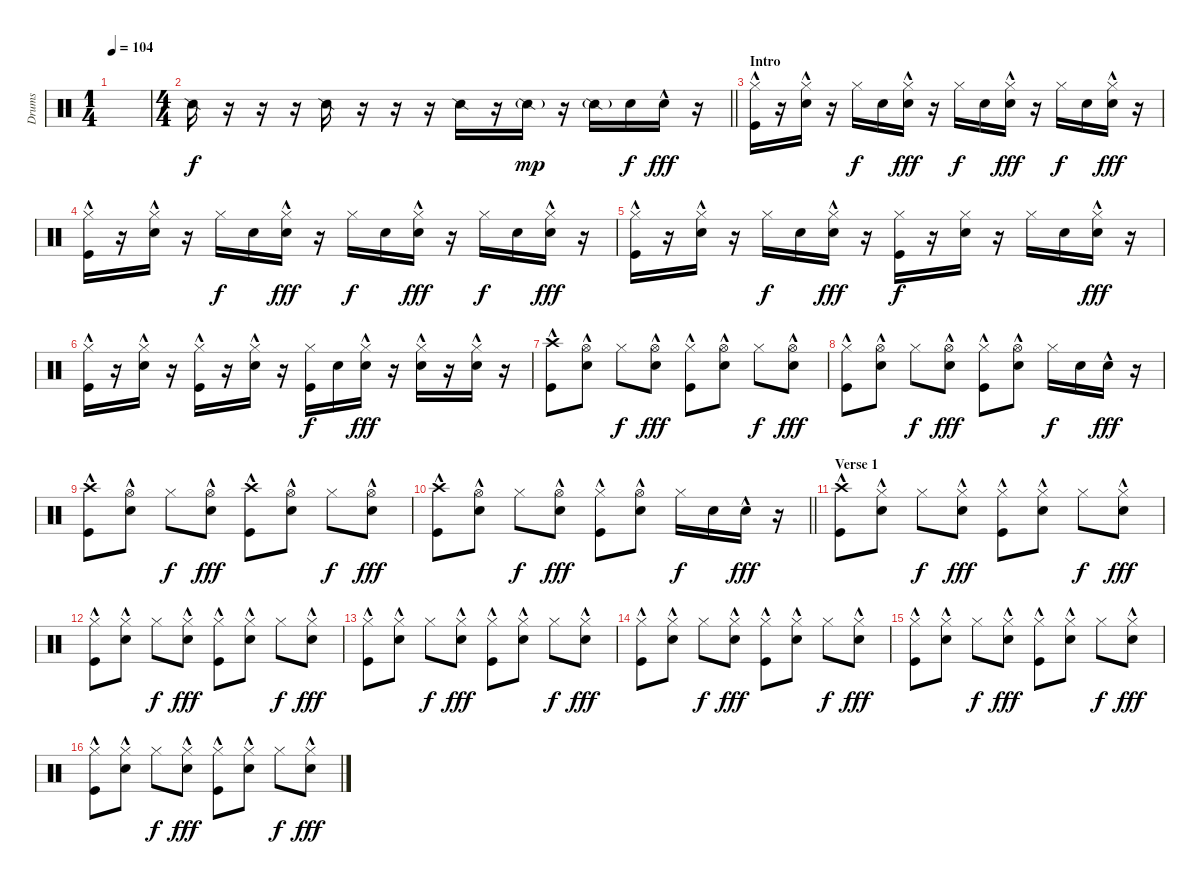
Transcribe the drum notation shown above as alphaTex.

\track ("Drums" "Drums") {instrument percussion}
\staff {score}
\articulation defaults
\ts (1 4)
\tempo 104
\clef neutral
\ks c
|
\ts (4 4)
\barLineRight lightlight "Snare (side stick) 2".16
r.16 r.16 r.16 "Snare (side stick) 2".16 r.16 r.16 r.16 "Snare (side stick) 2".16 r.16 "Snare (side stick) 2"{g}.16{dy mp} r.16 "Snare (side stick) 2"{g}.16 "Snare (hit) 2".16{dy f} "Snare (hit) 2"{hac}.16{dy fff} r.16 |
\section ("" "Intro")
("Hi-Hat (closed)" "Kick (hit)"{hac}).16 r.16 ("Hi-Hat (closed)" "Snare (hit) 2"{hac}).16 r.16 "Hi-Hat (closed)".16{dy f} "Snare (hit) 2".16 ("Hi-Hat (closed)" "Snare (hit) 2"{hac}).16{dy fff} r.16 "Hi-Hat (closed)".16{dy f} "Snare (hit) 2".16 ("Hi-Hat (closed)" "Snare (hit) 2"{hac}).16{dy fff} r.16 "Hi-Hat (closed)".16{dy f} "Snare (hit) 2".16 ("Hi-Hat (closed)" "Snare (hit) 2"{hac}).16{dy fff} r.16 |
("Hi-Hat (closed)" "Kick (hit)"{hac}).16 r.16 ("Hi-Hat (closed)" "Snare (hit) 2"{hac}).16 r.16 "Hi-Hat (closed)".16{dy f} "Snare (hit) 2".16 ("Hi-Hat (closed)" "Snare (hit) 2"{hac}).16{dy fff} r.16 "Hi-Hat (closed)".16{dy f} "Snare (hit) 2".16 ("Hi-Hat (closed)" "Snare (hit) 2"{hac}).16{dy fff} r.16 "Hi-Hat (closed)".16{dy f} "Snare (hit) 2".16 ("Hi-Hat (closed)" "Snare (hit) 2"{hac}).16{dy fff} r.16 |
("Hi-Hat (closed)" "Kick (hit)"{hac}).16 r.16 ("Hi-Hat (closed)" "Snare (hit) 2"{hac}).16 r.16 "Hi-Hat (closed)".16{dy f} "Snare (hit) 2".16 ("Hi-Hat (closed)" "Snare (hit) 2"{hac}).16{dy fff} r.16 ("Hi-Hat (closed)" "Kick (hit)").16{dy f} r.16 ("Hi-Hat (closed)" "Snare (hit) 2").16 r.16 "Hi-Hat (closed)".16 "Snare (hit) 2".16 ("Hi-Hat (closed)" "Snare (hit) 2"{hac}).16{dy fff} r.16 |
("Hi-Hat (closed)" "Kick (hit)"{hac}).16 r.16 ("Hi-Hat (closed)" "Snare (hit) 2"{hac}).16 r.16 ("Hi-Hat (closed)" "Kick (hit)"{hac}).16 r.16 ("Hi-Hat (closed)" "Snare (hit) 2"{hac}).16 r.16 ("Hi-Hat (closed)" "Kick (hit)").16{dy f} "Snare (hit) 2".16 ("Hi-Hat (closed)" "Snare (hit) 2"{hac}).16{dy fff} r.16 ("Hi-Hat (closed)" "Snare (hit) 2"{hac}).16 r.16 ("Hi-Hat (closed)" "Snare (hit) 2"{hac}).16 r.16 |
("Crash high (hit)" "Kick (hit)"{hac}).8 ("Hi-Hat (open)" "Snare (hit) 2"{hac}).8 "Hi-Hat (closed)".8{dy f} ("Hi-Hat (open)" "Snare (hit) 2"{hac}).8{dy fff} ("Hi-Hat (closed)" "Kick (hit)"{hac}).8 ("Hi-Hat (open)" "Snare (hit) 2"{hac}).8 "Hi-Hat (closed)".8{dy f} ("Hi-Hat (open)" "Snare (hit) 2"{hac}).8{dy fff} |
("Hi-Hat (closed)" "Kick (hit)"{hac}).8 ("Hi-Hat (open)" "Snare (hit) 2"{hac}).8 "Hi-Hat (closed)".8{dy f} ("Hi-Hat (open)" "Snare (hit) 2"{hac}).8{dy fff} ("Hi-Hat (closed)" "Kick (hit)"{hac}).8 ("Hi-Hat (open)" "Snare (hit) 2"{hac}).8 "Hi-Hat (closed)".16{dy f} "Snare (hit) 2".16 "Snare (hit) 2"{hac}.16{dy fff} r.16 |
("Crash high (hit)" "Kick (hit)"{hac}).8 ("Hi-Hat (open)" "Snare (hit) 2"{hac}).8 "Hi-Hat (closed)".8{dy f} ("Hi-Hat (open)" "Snare (hit) 2"{hac}).8{dy fff} ("Crash high (hit)" "Kick (hit)"{hac}).8 ("Hi-Hat (open)" "Snare (hit) 2"{hac}).8 "Hi-Hat (closed)".8{dy f} ("Hi-Hat (open)" "Snare (hit) 2"{hac}).8{dy fff} |
\barLineRight lightlight
("Crash high (hit)" "Kick (hit)"{hac}).8 ("Hi-Hat (open)" "Snare (hit) 2"{hac}).8 "Hi-Hat (closed)".8{dy f} ("Hi-Hat (open)" "Snare (hit) 2"{hac}).8{dy fff} ("Hi-Hat (closed)" "Kick (hit)"{hac}).8 ("Hi-Hat (open)" "Snare (hit) 2"{hac}).8 "Hi-Hat (closed)".16{dy f} "Snare (hit) 2".16 "Snare (hit) 2"{hac}.16{dy fff} r.16 |
\section ("" "Verse 1")
("Crash high (hit)" "Kick (hit)"{hac}).8 ("Hi-Hat (closed)" "Snare (hit) 2"{hac}).8 "Hi-Hat (closed)".8{dy f} ("Hi-Hat (closed)" "Snare (hit) 2"{hac}).8{dy fff} ("Hi-Hat (closed)" "Kick (hit)"{hac}).8 ("Hi-Hat (closed)" "Snare (hit) 2"{hac}).8 "Hi-Hat (closed)".8{dy f} ("Hi-Hat (closed)" "Snare (hit) 2"{hac}).8{dy fff} |
("Hi-Hat (closed)" "Kick (hit)"{hac}).8 ("Hi-Hat (closed)" "Snare (hit) 2"{hac}).8 "Hi-Hat (closed)".8{dy f} ("Hi-Hat (closed)" "Snare (hit) 2"{hac}).8{dy fff} ("Hi-Hat (closed)" "Kick (hit)"{hac}).8 ("Hi-Hat (closed)" "Snare (hit) 2"{hac}).8 "Hi-Hat (closed)".8{dy f} ("Hi-Hat (closed)" "Snare (hit) 2"{hac}).8{dy fff} |
("Hi-Hat (closed)" "Kick (hit)"{hac}).8 ("Hi-Hat (closed)" "Snare (hit) 2"{hac}).8 "Hi-Hat (closed)".8{dy f} ("Hi-Hat (closed)" "Snare (hit) 2"{hac}).8{dy fff} ("Hi-Hat (closed)" "Kick (hit)"{hac}).8 ("Hi-Hat (closed)" "Snare (hit) 2"{hac}).8 "Hi-Hat (closed)".8{dy f} ("Hi-Hat (closed)" "Snare (hit) 2"{hac}).8{dy fff} |
("Hi-Hat (closed)" "Kick (hit)"{hac}).8 ("Hi-Hat (closed)" "Snare (hit) 2"{hac}).8 "Hi-Hat (closed)".8{dy f} ("Hi-Hat (closed)" "Snare (hit) 2"{hac}).8{dy fff} ("Hi-Hat (closed)" "Kick (hit)"{hac}).8 ("Hi-Hat (closed)" "Snare (hit) 2"{hac}).8 "Hi-Hat (closed)".8{dy f} ("Hi-Hat (closed)" "Snare (hit) 2"{hac}).8{dy fff} |
("Hi-Hat (closed)" "Kick (hit)"{hac}).8 ("Hi-Hat (closed)" "Snare (hit) 2"{hac}).8 "Hi-Hat (closed)".8{dy f} ("Hi-Hat (closed)" "Snare (hit) 2"{hac}).8{dy fff} ("Hi-Hat (closed)" "Kick (hit)"{hac}).8 ("Hi-Hat (closed)" "Snare (hit) 2"{hac}).8 "Hi-Hat (closed)".8{dy f} ("Hi-Hat (closed)" "Snare (hit) 2"{hac}).8{dy fff} |
("Hi-Hat (closed)" "Kick (hit)"{hac}).8 ("Hi-Hat (closed)" "Snare (hit) 2"{hac}).8 "Hi-Hat (closed)".8{dy f} ("Hi-Hat (closed)" "Snare (hit) 2"{hac}).8{dy fff} ("Hi-Hat (closed)" "Kick (hit)"{hac}).8 ("Hi-Hat (closed)" "Snare (hit) 2"{hac}).8 "Hi-Hat (closed)".8{dy f} ("Hi-Hat (closed)" "Snare (hit) 2"{hac}).8{dy fff}
